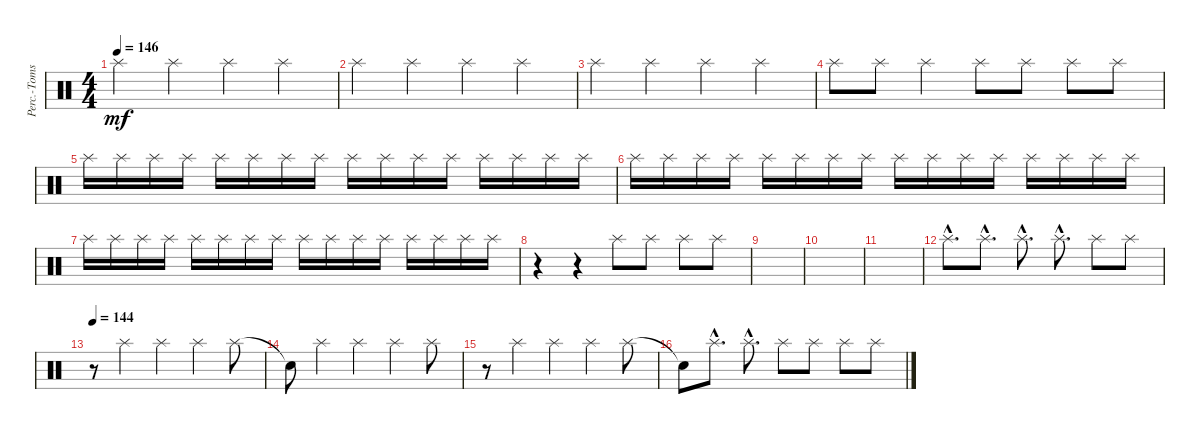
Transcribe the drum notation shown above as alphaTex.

\track ("Perc.-Toms/Cym.2" "Perc.-Toms") {instrument percussion}
\staff {score}
\articulation defaults
\ts (4 4)
\tempo 146
\clef neutral
\ks c "Splash (hit)".4{dy mf} "Splash (hit)".4 "Splash (hit)".4 "Splash (hit)".4
|
"Splash (hit)".4 "Splash (hit)".4 "Splash (hit)".4 "Splash (hit)".4 |
"Splash (hit)".4 "Splash (hit)".4 "Splash (hit)".4 "Splash (hit)".4 |
"Splash (hit)".8 "Splash (hit)".8 "Splash (hit)".4 "Splash (hit)".8 "Splash (hit)".8 "Splash (hit)".8 "Splash (hit)".8 |
"Splash (hit)".16 "Splash (hit)".16 "Splash (hit)".16 "Splash (hit)".16 "Splash (hit)".16 "Splash (hit)".16 "Splash (hit)".16 "Splash (hit)".16 "Splash (hit)".16 "Splash (hit)".16 "Splash (hit)".16 "Splash (hit)".16 "Splash (hit)".16 "Splash (hit)".16 "Splash (hit)".16 "Splash (hit)".16 |
"Splash (hit)".16 "Splash (hit)".16 "Splash (hit)".16 "Splash (hit)".16 "Splash (hit)".16 "Splash (hit)".16 "Splash (hit)".16 "Splash (hit)".16 "Splash (hit)".16 "Splash (hit)".16 "Splash (hit)".16 "Splash (hit)".16 "Splash (hit)".16 "Splash (hit)".16 "Splash (hit)".16 "Splash (hit)".16 |
"Splash (hit)".16 "Splash (hit)".16 "Splash (hit)".16 "Splash (hit)".16 "Splash (hit)".16 "Splash (hit)".16 "Splash (hit)".16 "Splash (hit)".16 "Splash (hit)".16 "Splash (hit)".16 "Splash (hit)".16 "Splash (hit)".16 "Splash (hit)".16 "Splash (hit)".16 "Splash (hit)".16 "Splash (hit)".16 |
r.4 r.4 "Splash (hit)".8 "Splash (hit)".8 "Splash (hit)".8 "Splash (hit)".8 |
|
|
|
"Splash (hit)"{hac}.8{d} "Splash (hit)"{hac}.8{d} "Splash (hit)"{hac}.8{d} "Splash (hit)"{hac}.8{d} "Splash (hit)".8 "Splash (hit)".8 |
\tempo 144
r.8 "Splash (hit)".4 "Splash (hit)".4 "Splash (hit)".4 "Splash (hit)".8 |
"Snare (hit)"{t}.8 "Splash (hit)".4 "Splash (hit)".4 "Splash (hit)".4 "Splash (hit)".8 |
r.8 "Splash (hit)".4 "Splash (hit)".4 "Splash (hit)".4 "Splash (hit)".8 |
"Snare (hit)"{t}.8 "Splash (hit)"{hac}.8{d} "Splash (hit)"{hac}.8{d} "Splash (hit)".8 "Splash (hit)".8 "Splash (hit)".8 "Splash (hit)".8
